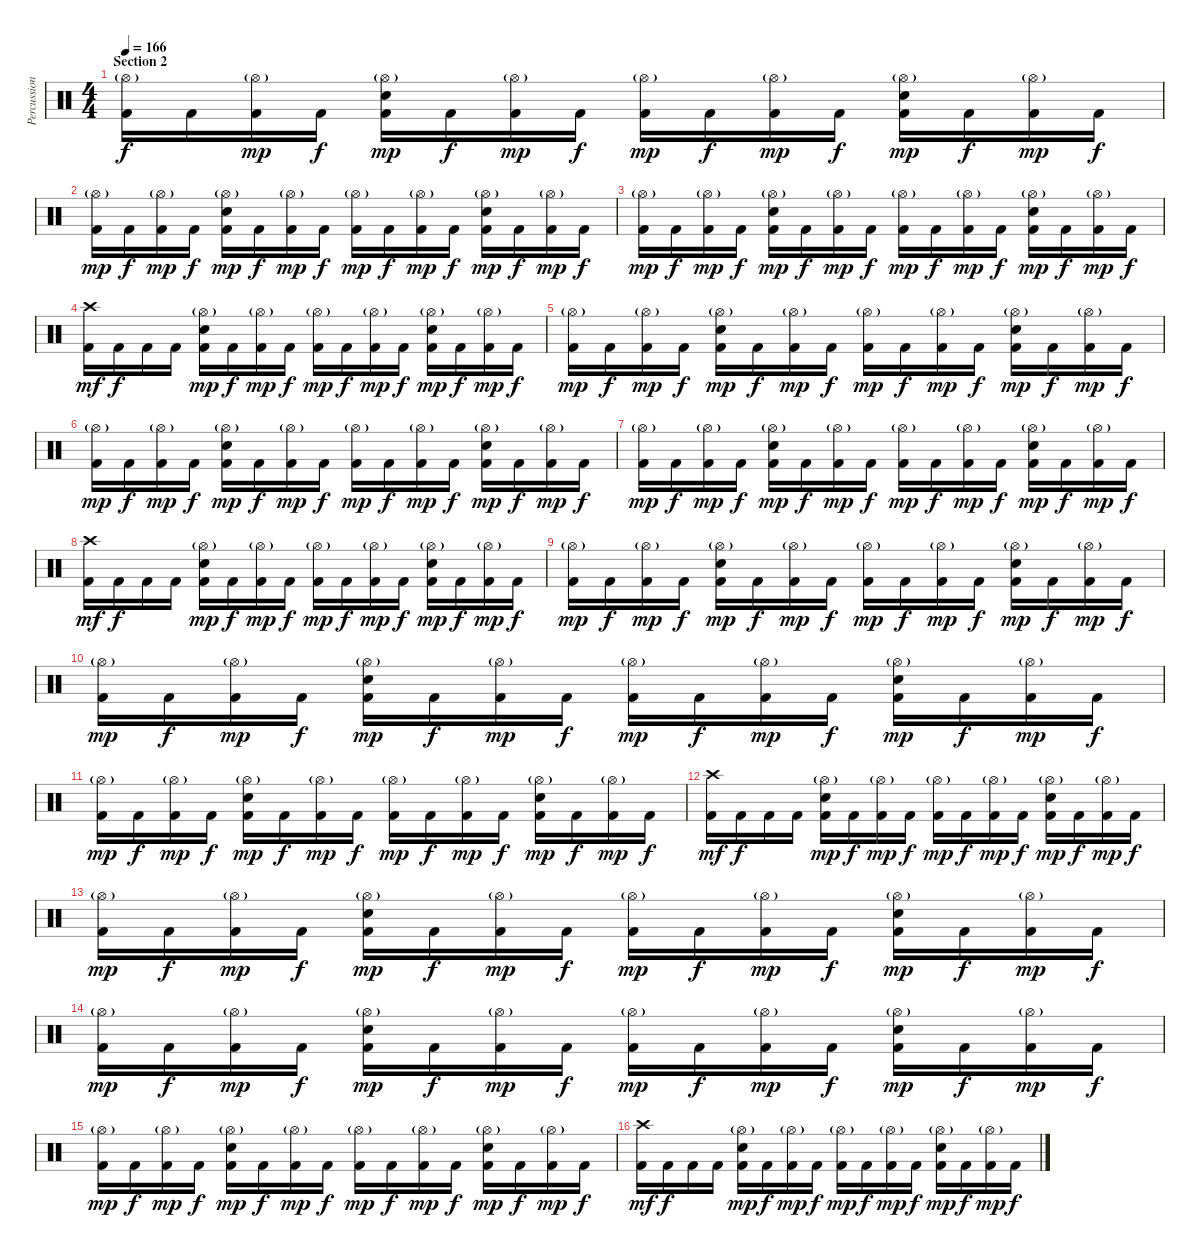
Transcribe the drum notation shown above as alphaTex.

\track ("Percussion" "Percussion") {instrument percussion}
\staff {score}
\articulation defaults
\ts (4 4)
\section ("" "Section 2")
\tempo 166
\clef neutral
\ks c
("Kick (hit) 2" "Hi-Hat (open)"{g}).16{dy f} "Kick (hit) 2".16 ("Kick (hit) 2" "Hi-Hat (open)"{g}).16{dy mp} "Kick (hit) 2".16{dy f} ("Kick (hit) 2" "Electric Snare (hit)" "Hi-Hat (open)"{g}).16{dy mp} "Kick (hit) 2".16{dy f} ("Kick (hit) 2" "Hi-Hat (open)"{g}).16{dy mp} "Kick (hit) 2".16{dy f} ("Kick (hit) 2" "Hi-Hat (open)"{g}).16{dy mp} "Kick (hit) 2".16{dy f} ("Kick (hit) 2" "Hi-Hat (open)"{g}).16{dy mp} "Kick (hit) 2".16{dy f} ("Kick (hit) 2" "Electric Snare (hit)" "Hi-Hat (open)"{g}).16{dy mp} "Kick (hit) 2".16{dy f} ("Kick (hit) 2" "Hi-Hat (open)"{g}).16{dy mp} "Kick (hit) 2".16{dy f} |
("Kick (hit) 2" "Hi-Hat (open)"{g}).16{dy mp} "Kick (hit) 2".16{dy f} ("Kick (hit) 2" "Hi-Hat (open)"{g}).16{dy mp} "Kick (hit) 2".16{dy f} ("Kick (hit) 2" "Electric Snare (hit)" "Hi-Hat (open)"{g}).16{dy mp} "Kick (hit) 2".16{dy f} ("Kick (hit) 2" "Hi-Hat (open)"{g}).16{dy mp} "Kick (hit) 2".16{dy f} ("Kick (hit) 2" "Hi-Hat (open)"{g}).16{dy mp} "Kick (hit) 2".16{dy f} ("Kick (hit) 2" "Hi-Hat (open)"{g}).16{dy mp} "Kick (hit) 2".16{dy f} ("Kick (hit) 2" "Electric Snare (hit)" "Hi-Hat (open)"{g}).16{dy mp} "Kick (hit) 2".16{dy f} ("Kick (hit) 2" "Hi-Hat (open)"{g}).16{dy mp} "Kick (hit) 2".16{dy f} |
("Kick (hit) 2" "Hi-Hat (open)"{g}).16{dy mp} "Kick (hit) 2".16{dy f} ("Kick (hit) 2" "Hi-Hat (open)"{g}).16{dy mp} "Kick (hit) 2".16{dy f} ("Kick (hit) 2" "Electric Snare (hit)" "Hi-Hat (open)"{g}).16{dy mp} "Kick (hit) 2".16{dy f} ("Kick (hit) 2" "Hi-Hat (open)"{g}).16{dy mp} "Kick (hit) 2".16{dy f} ("Kick (hit) 2" "Hi-Hat (open)"{g}).16{dy mp} "Kick (hit) 2".16{dy f} ("Kick (hit) 2" "Hi-Hat (open)"{g}).16{dy mp} "Kick (hit) 2".16{dy f} ("Kick (hit) 2" "Electric Snare (hit)" "Hi-Hat (open)"{g}).16{dy mp} "Kick (hit) 2".16{dy f} ("Kick (hit) 2" "Hi-Hat (open)"{g}).16{dy mp} "Kick (hit) 2".16{dy f} |
("Kick (hit) 2" "Crash high (hit)").16{dy mf} "Kick (hit) 2".16{dy f} "Kick (hit) 2".16 "Kick (hit) 2".16 ("Kick (hit) 2" "Electric Snare (hit)" "Hi-Hat (open)"{g}).16{dy mp} "Kick (hit) 2".16{dy f} ("Kick (hit) 2" "Hi-Hat (open)"{g}).16{dy mp} "Kick (hit) 2".16{dy f} ("Kick (hit) 2" "Hi-Hat (open)"{g}).16{dy mp} "Kick (hit) 2".16{dy f} ("Kick (hit) 2" "Hi-Hat (open)"{g}).16{dy mp} "Kick (hit) 2".16{dy f} ("Kick (hit) 2" "Electric Snare (hit)" "Hi-Hat (open)"{g}).16{dy mp} "Kick (hit) 2".16{dy f} ("Kick (hit) 2" "Hi-Hat (open)"{g}).16{dy mp} "Kick (hit) 2".16{dy f} |
("Kick (hit) 2" "Hi-Hat (open)"{g}).16{dy mp} "Kick (hit) 2".16{dy f} ("Kick (hit) 2" "Hi-Hat (open)"{g}).16{dy mp} "Kick (hit) 2".16{dy f} ("Kick (hit) 2" "Electric Snare (hit)" "Hi-Hat (open)"{g}).16{dy mp} "Kick (hit) 2".16{dy f} ("Kick (hit) 2" "Hi-Hat (open)"{g}).16{dy mp} "Kick (hit) 2".16{dy f} ("Kick (hit) 2" "Hi-Hat (open)"{g}).16{dy mp} "Kick (hit) 2".16{dy f} ("Kick (hit) 2" "Hi-Hat (open)"{g}).16{dy mp} "Kick (hit) 2".16{dy f} ("Kick (hit) 2" "Electric Snare (hit)" "Hi-Hat (open)"{g}).16{dy mp} "Kick (hit) 2".16{dy f} ("Kick (hit) 2" "Hi-Hat (open)"{g}).16{dy mp} "Kick (hit) 2".16{dy f} |
("Kick (hit) 2" "Hi-Hat (open)"{g}).16{dy mp} "Kick (hit) 2".16{dy f} ("Kick (hit) 2" "Hi-Hat (open)"{g}).16{dy mp} "Kick (hit) 2".16{dy f} ("Kick (hit) 2" "Electric Snare (hit)" "Hi-Hat (open)"{g}).16{dy mp} "Kick (hit) 2".16{dy f} ("Kick (hit) 2" "Hi-Hat (open)"{g}).16{dy mp} "Kick (hit) 2".16{dy f} ("Kick (hit) 2" "Hi-Hat (open)"{g}).16{dy mp} "Kick (hit) 2".16{dy f} ("Kick (hit) 2" "Hi-Hat (open)"{g}).16{dy mp} "Kick (hit) 2".16{dy f} ("Kick (hit) 2" "Electric Snare (hit)" "Hi-Hat (open)"{g}).16{dy mp} "Kick (hit) 2".16{dy f} ("Kick (hit) 2" "Hi-Hat (open)"{g}).16{dy mp} "Kick (hit) 2".16{dy f} |
("Kick (hit) 2" "Hi-Hat (open)"{g}).16{dy mp} "Kick (hit) 2".16{dy f} ("Kick (hit) 2" "Hi-Hat (open)"{g}).16{dy mp} "Kick (hit) 2".16{dy f} ("Kick (hit) 2" "Electric Snare (hit)" "Hi-Hat (open)"{g}).16{dy mp} "Kick (hit) 2".16{dy f} ("Kick (hit) 2" "Hi-Hat (open)"{g}).16{dy mp} "Kick (hit) 2".16{dy f} ("Kick (hit) 2" "Hi-Hat (open)"{g}).16{dy mp} "Kick (hit) 2".16{dy f} ("Kick (hit) 2" "Hi-Hat (open)"{g}).16{dy mp} "Kick (hit) 2".16{dy f} ("Kick (hit) 2" "Electric Snare (hit)" "Hi-Hat (open)"{g}).16{dy mp} "Kick (hit) 2".16{dy f} ("Kick (hit) 2" "Hi-Hat (open)"{g}).16{dy mp} "Kick (hit) 2".16{dy f} |
("Kick (hit) 2" "Crash high (hit)").16{dy mf} "Kick (hit) 2".16{dy f} "Kick (hit) 2".16 "Kick (hit) 2".16 ("Kick (hit) 2" "Electric Snare (hit)" "Hi-Hat (open)"{g}).16{dy mp} "Kick (hit) 2".16{dy f} ("Kick (hit) 2" "Hi-Hat (open)"{g}).16{dy mp} "Kick (hit) 2".16{dy f} ("Kick (hit) 2" "Hi-Hat (open)"{g}).16{dy mp} "Kick (hit) 2".16{dy f} ("Kick (hit) 2" "Hi-Hat (open)"{g}).16{dy mp} "Kick (hit) 2".16{dy f} ("Kick (hit) 2" "Electric Snare (hit)" "Hi-Hat (open)"{g}).16{dy mp} "Kick (hit) 2".16{dy f} ("Kick (hit) 2" "Hi-Hat (open)"{g}).16{dy mp} "Kick (hit) 2".16{dy f} |
("Kick (hit) 2" "Hi-Hat (open)"{g}).16{dy mp} "Kick (hit) 2".16{dy f} ("Kick (hit) 2" "Hi-Hat (open)"{g}).16{dy mp} "Kick (hit) 2".16{dy f} ("Kick (hit) 2" "Electric Snare (hit)" "Hi-Hat (open)"{g}).16{dy mp} "Kick (hit) 2".16{dy f} ("Kick (hit) 2" "Hi-Hat (open)"{g}).16{dy mp} "Kick (hit) 2".16{dy f} ("Kick (hit) 2" "Hi-Hat (open)"{g}).16{dy mp} "Kick (hit) 2".16{dy f} ("Kick (hit) 2" "Hi-Hat (open)"{g}).16{dy mp} "Kick (hit) 2".16{dy f} ("Kick (hit) 2" "Electric Snare (hit)" "Hi-Hat (open)"{g}).16{dy mp} "Kick (hit) 2".16{dy f} ("Kick (hit) 2" "Hi-Hat (open)"{g}).16{dy mp} "Kick (hit) 2".16{dy f} |
("Kick (hit) 2" "Hi-Hat (open)"{g}).16{dy mp} "Kick (hit) 2".16{dy f} ("Kick (hit) 2" "Hi-Hat (open)"{g}).16{dy mp} "Kick (hit) 2".16{dy f} ("Kick (hit) 2" "Electric Snare (hit)" "Hi-Hat (open)"{g}).16{dy mp} "Kick (hit) 2".16{dy f} ("Kick (hit) 2" "Hi-Hat (open)"{g}).16{dy mp} "Kick (hit) 2".16{dy f} ("Kick (hit) 2" "Hi-Hat (open)"{g}).16{dy mp} "Kick (hit) 2".16{dy f} ("Kick (hit) 2" "Hi-Hat (open)"{g}).16{dy mp} "Kick (hit) 2".16{dy f} ("Kick (hit) 2" "Electric Snare (hit)" "Hi-Hat (open)"{g}).16{dy mp} "Kick (hit) 2".16{dy f} ("Kick (hit) 2" "Hi-Hat (open)"{g}).16{dy mp} "Kick (hit) 2".16{dy f} |
("Kick (hit) 2" "Hi-Hat (open)"{g}).16{dy mp} "Kick (hit) 2".16{dy f} ("Kick (hit) 2" "Hi-Hat (open)"{g}).16{dy mp} "Kick (hit) 2".16{dy f} ("Kick (hit) 2" "Electric Snare (hit)" "Hi-Hat (open)"{g}).16{dy mp} "Kick (hit) 2".16{dy f} ("Kick (hit) 2" "Hi-Hat (open)"{g}).16{dy mp} "Kick (hit) 2".16{dy f} ("Kick (hit) 2" "Hi-Hat (open)"{g}).16{dy mp} "Kick (hit) 2".16{dy f} ("Kick (hit) 2" "Hi-Hat (open)"{g}).16{dy mp} "Kick (hit) 2".16{dy f} ("Kick (hit) 2" "Electric Snare (hit)" "Hi-Hat (open)"{g}).16{dy mp} "Kick (hit) 2".16{dy f} ("Kick (hit) 2" "Hi-Hat (open)"{g}).16{dy mp} "Kick (hit) 2".16{dy f} |
("Kick (hit) 2" "Crash high (hit)").16{dy mf} "Kick (hit) 2".16{dy f} "Kick (hit) 2".16 "Kick (hit) 2".16 ("Kick (hit) 2" "Electric Snare (hit)" "Hi-Hat (open)"{g}).16{dy mp} "Kick (hit) 2".16{dy f} ("Kick (hit) 2" "Hi-Hat (open)"{g}).16{dy mp} "Kick (hit) 2".16{dy f} ("Kick (hit) 2" "Hi-Hat (open)"{g}).16{dy mp} "Kick (hit) 2".16{dy f} ("Kick (hit) 2" "Hi-Hat (open)"{g}).16{dy mp} "Kick (hit) 2".16{dy f} ("Kick (hit) 2" "Electric Snare (hit)" "Hi-Hat (open)"{g}).16{dy mp} "Kick (hit) 2".16{dy f} ("Kick (hit) 2" "Hi-Hat (open)"{g}).16{dy mp} "Kick (hit) 2".16{dy f} |
("Kick (hit) 2" "Hi-Hat (open)"{g}).16{dy mp} "Kick (hit) 2".16{dy f} ("Kick (hit) 2" "Hi-Hat (open)"{g}).16{dy mp} "Kick (hit) 2".16{dy f} ("Kick (hit) 2" "Electric Snare (hit)" "Hi-Hat (open)"{g}).16{dy mp} "Kick (hit) 2".16{dy f} ("Kick (hit) 2" "Hi-Hat (open)"{g}).16{dy mp} "Kick (hit) 2".16{dy f} ("Kick (hit) 2" "Hi-Hat (open)"{g}).16{dy mp} "Kick (hit) 2".16{dy f} ("Kick (hit) 2" "Hi-Hat (open)"{g}).16{dy mp} "Kick (hit) 2".16{dy f} ("Kick (hit) 2" "Electric Snare (hit)" "Hi-Hat (open)"{g}).16{dy mp} "Kick (hit) 2".16{dy f} ("Kick (hit) 2" "Hi-Hat (open)"{g}).16{dy mp} "Kick (hit) 2".16{dy f} |
("Kick (hit) 2" "Hi-Hat (open)"{g}).16{dy mp} "Kick (hit) 2".16{dy f} ("Kick (hit) 2" "Hi-Hat (open)"{g}).16{dy mp} "Kick (hit) 2".16{dy f} ("Kick (hit) 2" "Electric Snare (hit)" "Hi-Hat (open)"{g}).16{dy mp} "Kick (hit) 2".16{dy f} ("Kick (hit) 2" "Hi-Hat (open)"{g}).16{dy mp} "Kick (hit) 2".16{dy f} ("Kick (hit) 2" "Hi-Hat (open)"{g}).16{dy mp} "Kick (hit) 2".16{dy f} ("Kick (hit) 2" "Hi-Hat (open)"{g}).16{dy mp} "Kick (hit) 2".16{dy f} ("Kick (hit) 2" "Electric Snare (hit)" "Hi-Hat (open)"{g}).16{dy mp} "Kick (hit) 2".16{dy f} ("Kick (hit) 2" "Hi-Hat (open)"{g}).16{dy mp} "Kick (hit) 2".16{dy f} |
("Kick (hit) 2" "Hi-Hat (open)"{g}).16{dy mp} "Kick (hit) 2".16{dy f} ("Kick (hit) 2" "Hi-Hat (open)"{g}).16{dy mp} "Kick (hit) 2".16{dy f} ("Kick (hit) 2" "Electric Snare (hit)" "Hi-Hat (open)"{g}).16{dy mp} "Kick (hit) 2".16{dy f} ("Kick (hit) 2" "Hi-Hat (open)"{g}).16{dy mp} "Kick (hit) 2".16{dy f} ("Kick (hit) 2" "Hi-Hat (open)"{g}).16{dy mp} "Kick (hit) 2".16{dy f} ("Kick (hit) 2" "Hi-Hat (open)"{g}).16{dy mp} "Kick (hit) 2".16{dy f} ("Kick (hit) 2" "Electric Snare (hit)" "Hi-Hat (open)"{g}).16{dy mp} "Kick (hit) 2".16{dy f} ("Kick (hit) 2" "Hi-Hat (open)"{g}).16{dy mp} "Kick (hit) 2".16{dy f} |
("Kick (hit) 2" "Crash high (hit)").16{dy mf} "Kick (hit) 2".16{dy f} "Kick (hit) 2".16 "Kick (hit) 2".16 ("Kick (hit) 2" "Electric Snare (hit)" "Hi-Hat (open)"{g}).16{dy mp} "Kick (hit) 2".16{dy f} ("Kick (hit) 2" "Hi-Hat (open)"{g}).16{dy mp} "Kick (hit) 2".16{dy f} ("Kick (hit) 2" "Hi-Hat (open)"{g}).16{dy mp} "Kick (hit) 2".16{dy f} ("Kick (hit) 2" "Hi-Hat (open)"{g}).16{dy mp} "Kick (hit) 2".16{dy f} ("Kick (hit) 2" "Electric Snare (hit)" "Hi-Hat (open)"{g}).16{dy mp} "Kick (hit) 2".16{dy f} ("Kick (hit) 2" "Hi-Hat (open)"{g}).16{dy mp} "Kick (hit) 2".16{dy f}
